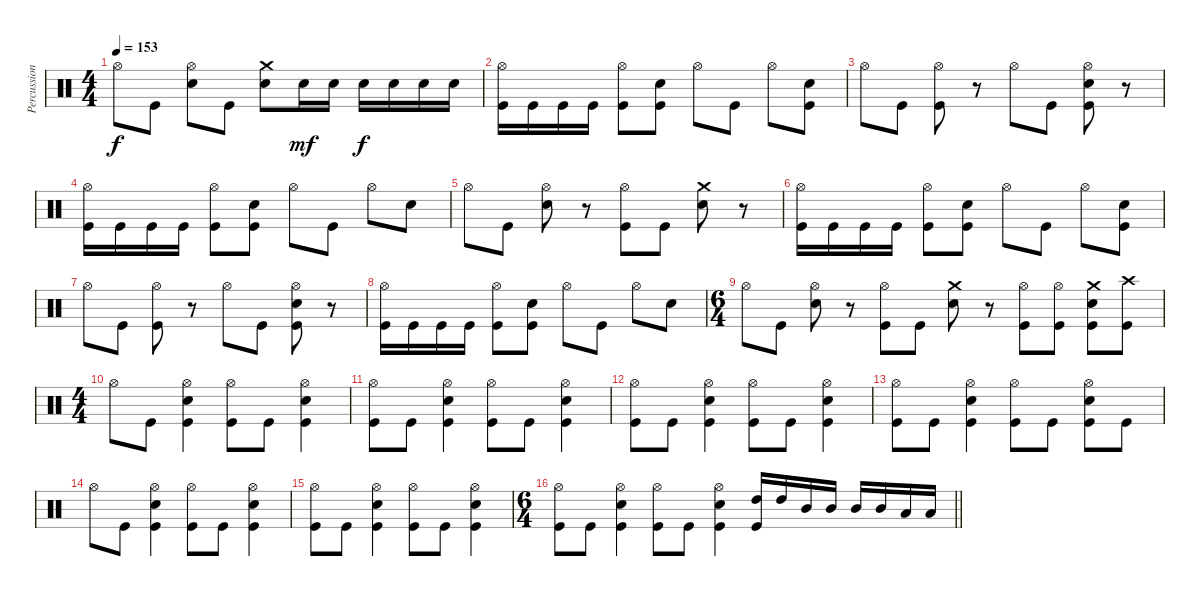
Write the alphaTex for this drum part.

\track ("Percussions" "Percussion") {instrument percussion}
\staff {score}
\articulation defaults
\ts (4 4)
\tempo 153
\clef neutral
\ks c "Hi-Hat (open)".8{dy f} "Kick (hit)".8
("Hi-Hat (open)" "Electric Snare (hit)").8 "Kick (hit)".8 ("Crash medium (hit)" "Electric Snare (hit)").8 "Electric Snare (hit)".16{dy mf} "Electric Snare (hit)".16 "Electric Snare (hit)".16{dy f} "Electric Snare (hit)".16 "Electric Snare (hit)".16 "Electric Snare (hit)".16 |
("Hi-Hat (open)" "Kick (hit)").16 "Kick (hit)".16 "Kick (hit)".16 "Kick (hit)".16 ("Hi-Hat (open)" "Kick (hit)").8 ("Electric Snare (hit)" "Kick (hit)").8 "Hi-Hat (open)".8 "Kick (hit)".8 "Hi-Hat (open)".8 ("Electric Snare (hit)" "Kick (hit)").8 |
"Hi-Hat (open)".8 "Kick (hit)".8 ("Hi-Hat (open)" "Kick (hit)").8 r.8 "Hi-Hat (open)".8 "Kick (hit)".8 ("Hi-Hat (open)" "Electric Snare (hit)" "Kick (hit)").8 r.8 |
("Hi-Hat (open)" "Kick (hit)").16 "Kick (hit)".16 "Kick (hit)".16 "Kick (hit)".16 ("Hi-Hat (open)" "Kick (hit)").8 ("Electric Snare (hit)" "Kick (hit)").8 "Hi-Hat (open)".8 "Kick (hit)".8 "Hi-Hat (open)".8 "Electric Snare (hit)".8 |
"Hi-Hat (open)".8 "Kick (hit)".8 ("Hi-Hat (open)" "Electric Snare (hit)").8 r.8 ("Hi-Hat (open)" "Kick (hit)").8 "Kick (hit)".8 ("Crash medium (hit)" "Electric Snare (hit)").8 r.8 |
("Hi-Hat (open)" "Kick (hit)").16 "Kick (hit)".16 "Kick (hit)".16 "Kick (hit)".16 ("Hi-Hat (open)" "Kick (hit)").8 ("Electric Snare (hit)" "Kick (hit)").8 "Hi-Hat (open)".8 "Kick (hit)".8 "Hi-Hat (open)".8 ("Electric Snare (hit)" "Kick (hit)").8 |
"Hi-Hat (open)".8 "Kick (hit)".8 ("Hi-Hat (open)" "Kick (hit)").8 r.8 "Hi-Hat (open)".8 "Kick (hit)".8 ("Hi-Hat (open)" "Electric Snare (hit)" "Kick (hit)").8 r.8 |
("Hi-Hat (open)" "Kick (hit)").16 "Kick (hit)".16 "Kick (hit)".16 "Kick (hit)".16 ("Hi-Hat (open)" "Kick (hit)").8 ("Electric Snare (hit)" "Kick (hit)").8 "Hi-Hat (open)".8 "Kick (hit)".8 "Hi-Hat (open)".8 "Electric Snare (hit)".8 |
\ts (6 4)
"Hi-Hat (open)".8 "Kick (hit)".8 ("Hi-Hat (open)" "Electric Snare (hit)").8 r.8 ("Hi-Hat (open)" "Kick (hit)").8 "Kick (hit)".8 ("Crash medium (hit)" "Electric Snare (hit)").8 r.8 ("Hi-Hat (open)" "Kick (hit)").8 ("Hi-Hat (open)" "Kick (hit)").8 ("Crash medium (hit)" "Electric Snare (hit)" "Kick (hit)").8 ("Crash high (hit)" "Kick (hit)").8 |
\ts (4 4)
"Hi-Hat (open)".8 "Kick (hit)".8 ("Hi-Hat (open)" "Electric Snare (hit)" "Kick (hit)").4 ("Hi-Hat (open)" "Kick (hit)").8 "Kick (hit)".8 ("Hi-Hat (open)" "Electric Snare (hit)" "Kick (hit)").4 |
("Hi-Hat (open)" "Kick (hit)").8 "Kick (hit)".8 ("Hi-Hat (open)" "Electric Snare (hit)" "Kick (hit)").4 ("Hi-Hat (open)" "Kick (hit)").8 "Kick (hit)".8 ("Hi-Hat (open)" "Electric Snare (hit)" "Kick (hit)").4 |
("Hi-Hat (open)" "Kick (hit)").8 "Kick (hit)".8 ("Hi-Hat (open)" "Electric Snare (hit)" "Kick (hit)").4 ("Hi-Hat (open)" "Kick (hit)").8 "Kick (hit)".8 ("Hi-Hat (open)" "Electric Snare (hit)" "Kick (hit)").4 |
("Hi-Hat (open)" "Kick (hit)").8 "Kick (hit)".8 ("Hi-Hat (open)" "Electric Snare (hit)" "Kick (hit)").4 ("Hi-Hat (open)" "Kick (hit)").8 "Kick (hit)".8 ("Hi-Hat (open)" "Electric Snare (hit)" "Kick (hit)").8 "Kick (hit)".8 |
"Hi-Hat (open)".8 "Kick (hit)".8 ("Hi-Hat (open)" "Electric Snare (hit)" "Kick (hit)").4 ("Hi-Hat (open)" "Kick (hit)").8 "Kick (hit)".8 ("Hi-Hat (open)" "Electric Snare (hit)" "Kick (hit)").4 |
("Hi-Hat (open)" "Kick (hit)").8 "Kick (hit)".8 ("Hi-Hat (open)" "Electric Snare (hit)" "Kick (hit)").4 ("Hi-Hat (open)" "Kick (hit)").8 "Kick (hit)".8 ("Hi-Hat (open)" "Electric Snare (hit)" "Kick (hit)").4 |
\ts (6 4)
\barLineRight lightlight
("Hi-Hat (open)" "Kick (hit)").8 "Kick (hit)".8 ("Hi-Hat (open)" "Electric Snare (hit)" "Kick (hit)").4 ("Hi-Hat (open)" "Kick (hit)").8 "Kick (hit)".8 ("Hi-Hat (open)" "Electric Snare (hit)" "Kick (hit)").4 ("High Tom (hit)" "Kick (hit)").16 "High Tom (hit)".16 "Mid Tom (hit)".16 "Mid Tom (hit)".16 "Mid Tom (hit)".16 "Mid Tom (hit)".16 "Low Tom (hit)".16 "Low Tom (hit)".16
